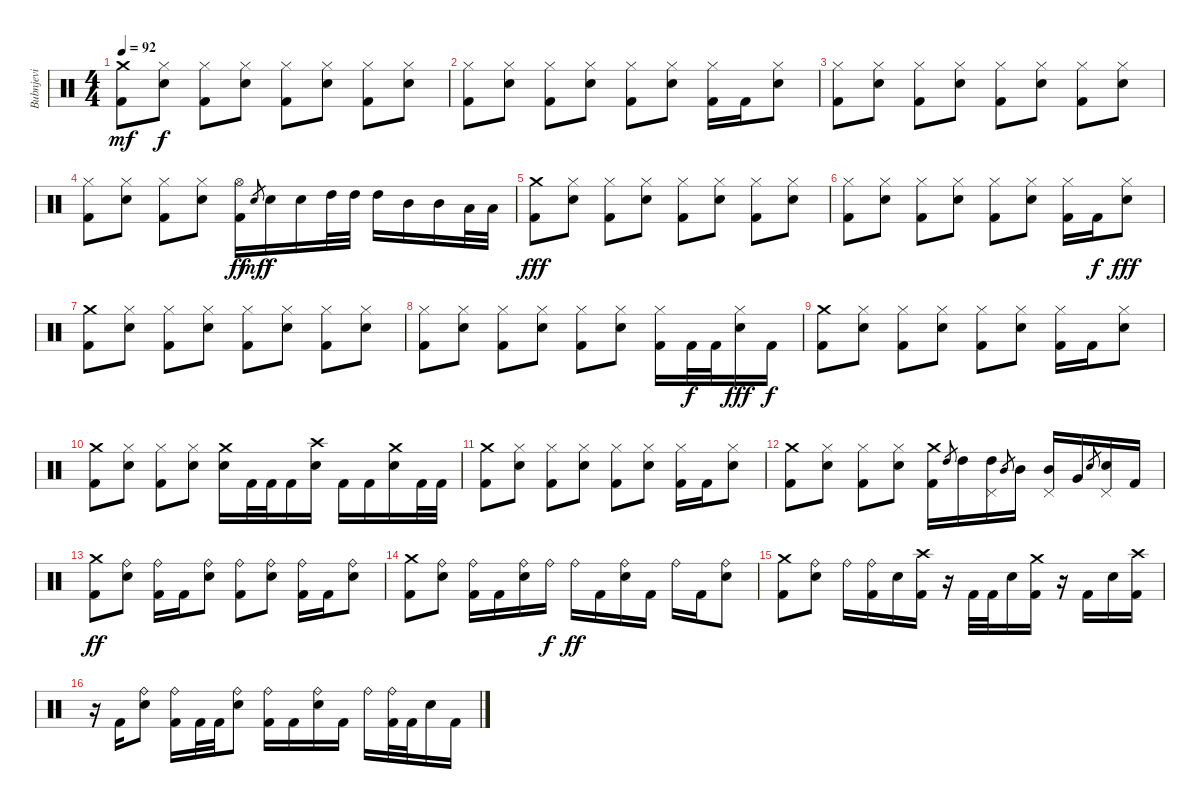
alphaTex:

\track ("Bubnjevi" "Bubnjevi") {instrument percussion}
\staff {score}
\articulation defaults
\ts (4 4)
\tempo 92
\clef neutral
\ks c
("Crash medium (hit)" "Kick (hit) 2").8{dy mf} ("Hi-Hat (closed)" "Electric Snare (hit)").8{dy f} ("Hi-Hat (closed)" "Kick (hit) 2").8 ("Hi-Hat (closed)" "Electric Snare (hit)").8 ("Hi-Hat (closed)" "Kick (hit) 2").8 ("Hi-Hat (closed)" "Electric Snare (hit)").8 ("Hi-Hat (closed)" "Kick (hit) 2").8 ("Hi-Hat (closed)" "Electric Snare (hit)").8 |
("Hi-Hat (closed)" "Kick (hit) 2").8 ("Hi-Hat (closed)" "Electric Snare (hit)").8 ("Hi-Hat (closed)" "Kick (hit) 2").8 ("Hi-Hat (closed)" "Electric Snare (hit)").8 ("Hi-Hat (closed)" "Kick (hit) 2").8 ("Hi-Hat (closed)" "Electric Snare (hit)").8 ("Hi-Hat (closed)" "Kick (hit) 2").16 "Kick (hit) 2".16 ("Hi-Hat (closed)" "Electric Snare (hit)").8 |
("Hi-Hat (closed)" "Kick (hit) 2").8 ("Hi-Hat (closed)" "Electric Snare (hit)").8 ("Hi-Hat (closed)" "Kick (hit) 2").8 ("Hi-Hat (closed)" "Electric Snare (hit)").8 ("Hi-Hat (closed)" "Kick (hit) 2").8 ("Hi-Hat (closed)" "Electric Snare (hit)").8 ("Hi-Hat (closed)" "Kick (hit) 2").8 ("Hi-Hat (closed)" "Electric Snare (hit)").8 |
("Hi-Hat (closed)" "Kick (hit) 2").8 ("Hi-Hat (closed)" "Electric Snare (hit)").8 ("Hi-Hat (closed)" "Kick (hit) 2").8 ("Hi-Hat (closed)" "Electric Snare (hit)").8 ("Hi-Hat (open)" "Kick (hit) 2").16{dy ff} "Electric Snare (hit)".8{gr dy mf} "Electric Snare (hit)".16{dy f} "Electric Snare (hit)".16 "High Tom (hit)".32 "High Tom (hit)".32 "High Tom (hit)".16 "Mid Tom (hit)".16 "Mid Tom (hit)".16 "Low Tom (hit)".32 "Low Tom (hit)".32 |
("Crash medium (hit)" "Kick (hit) 2").8{dy fff} ("Hi-Hat (closed)" "Electric Snare (hit)").8 ("Hi-Hat (closed)" "Kick (hit) 2").8 ("Hi-Hat (closed)" "Electric Snare (hit)").8 ("Hi-Hat (closed)" "Kick (hit) 2").8 ("Hi-Hat (closed)" "Electric Snare (hit)").8 ("Hi-Hat (closed)" "Kick (hit) 2").8 ("Hi-Hat (closed)" "Electric Snare (hit)").8 |
("Hi-Hat (closed)" "Kick (hit) 2").8 ("Hi-Hat (closed)" "Electric Snare (hit)").8 ("Hi-Hat (closed)" "Kick (hit) 2").8 ("Hi-Hat (closed)" "Electric Snare (hit)").8 ("Hi-Hat (closed)" "Kick (hit) 2").8 ("Hi-Hat (closed)" "Electric Snare (hit)").8 ("Hi-Hat (closed)" "Kick (hit) 2").16 "Kick (hit) 2".16{dy f} ("Hi-Hat (closed)" "Electric Snare (hit)").8{dy fff} |
("Crash medium (hit)" "Kick (hit) 2").8 ("Hi-Hat (closed)" "Electric Snare (hit)").8 ("Hi-Hat (closed)" "Kick (hit) 2").8 ("Hi-Hat (closed)" "Electric Snare (hit)").8 ("Hi-Hat (closed)" "Kick (hit) 2").8 ("Hi-Hat (closed)" "Electric Snare (hit)").8 ("Hi-Hat (closed)" "Kick (hit) 2").8 ("Hi-Hat (closed)" "Electric Snare (hit)").8 |
("Hi-Hat (closed)" "Kick (hit) 2").8 ("Hi-Hat (closed)" "Electric Snare (hit)").8 ("Hi-Hat (closed)" "Kick (hit) 2").8 ("Hi-Hat (closed)" "Electric Snare (hit)").8 ("Hi-Hat (closed)" "Kick (hit) 2").8 ("Hi-Hat (closed)" "Electric Snare (hit)").8 ("Hi-Hat (closed)" "Kick (hit) 2").16 "Kick (hit) 2".32{dy f} "Kick (hit) 2".32 ("Hi-Hat (closed)" "Electric Snare (hit)").16{dy fff} "Kick (hit) 2".16{dy f} |
("Crash medium (hit)" "Kick (hit) 2").8 ("Hi-Hat (closed)" "Electric Snare (hit)").8 ("Hi-Hat (closed)" "Kick (hit) 2").8 ("Hi-Hat (closed)" "Electric Snare (hit)").8 ("Hi-Hat (closed)" "Kick (hit) 2").8 ("Hi-Hat (closed)" "Electric Snare (hit)").8 ("Hi-Hat (closed)" "Kick (hit) 2").16 "Kick (hit) 2".16 ("Hi-Hat (closed)" "Electric Snare (hit)").8 |
("Crash medium (hit)" "Kick (hit) 2").8 ("Hi-Hat (closed)" "Electric Snare (hit)").8 ("Hi-Hat (closed)" "Kick (hit) 2").8 ("Hi-Hat (closed)" "Electric Snare (hit)").8 ("Crash medium (hit)" "Electric Snare (hit)").16 "Kick (hit) 2".32 "Kick (hit) 2".32 "Kick (hit) 2".16 ("Crash high (hit)" "Electric Snare (hit)").16 "Kick (hit) 2".16 "Kick (hit) 2".16 ("Crash medium (hit)" "Electric Snare (hit)").16 "Kick (hit) 2".32 "Kick (hit) 2".32 |
("Crash medium (hit)" "Kick (hit) 2").8 ("Hi-Hat (closed)" "Electric Snare (hit)").8 ("Hi-Hat (closed)" "Kick (hit) 2").8 ("Hi-Hat (closed)" "Electric Snare (hit)").8 ("Hi-Hat (closed)" "Kick (hit) 2").8 ("Hi-Hat (closed)" "Electric Snare (hit)").8 ("Hi-Hat (closed)" "Kick (hit) 2").16 "Kick (hit) 2".16 ("Hi-Hat (closed)" "Electric Snare (hit)").8 |
("Crash medium (hit)" "Kick (hit) 2").8 ("Hi-Hat (closed)" "Electric Snare (hit)").8 ("Hi-Hat (closed)" "Kick (hit) 2").8 ("Hi-Hat (closed)" "Electric Snare (hit)").8 ("Crash medium (hit)" "Kick (hit) 2").16 "High Tom (hit)".8{gr} "High Tom (hit)".16 ("Pedal Hi-Hat (hit)" "High Tom (hit)").16 "Mid Tom (hit)".8{gr} "Mid Tom (hit)".16 ("Pedal Hi-Hat (hit)" "Mid Tom (hit)").16 "Very Low Tom (hit)".16 "Electric Snare (hit)".8{gr} ("Pedal Hi-Hat (hit)" "Electric Snare (hit)").16 "Kick (hit) 2".16 |
("Crash medium (hit)" "Kick (hit) 2").8{dy ff} ("Ride (bell)" "Electric Snare (hit)").8 ("Ride (bell)" "Kick (hit) 2").16 "Kick (hit) 2".16 ("Ride (bell)" "Electric Snare (hit)").8 ("Ride (bell)" "Kick (hit) 2").8 ("Ride (bell)" "Electric Snare (hit)").8 ("Ride (bell)" "Kick (hit) 2").16 "Kick (hit) 2".16 ("Ride (bell)" "Electric Snare (hit)").8 |
("Crash medium (hit)" "Kick (hit) 2").8 ("Ride (bell)" "Electric Snare (hit)").8 ("Ride (bell)" "Kick (hit) 2").16 "Kick (hit) 2".16 ("Ride (bell)" "Electric Snare (hit)").16 "Ride (bell)".16{dy f} "Ride (bell)".16{dy ff} "Kick (hit) 2".16 ("Ride (bell)" "Electric Snare (hit)").16 "Kick (hit) 2".16 "Ride (bell)".16 "Kick (hit) 2".16 ("Ride (bell)" "Electric Snare (hit)").8 |
("Crash medium (hit)" "Kick (hit) 2").8 ("Ride (bell)" "Electric Snare (hit)").8 "Ride (bell)".16 ("Ride (bell)" "Kick (hit) 2").16 "Electric Snare (hit)".16 ("Crash high (hit)" "Kick (hit) 2").16 r.16 "Kick (hit) 2".32 "Kick (hit) 2".32 "Electric Snare (hit)".16 ("Crash medium (hit)" "Kick (hit) 2").16 r.16 "Kick (hit) 2".16 "Electric Snare (hit)".16 ("Crash high (hit)" "Kick (hit) 2").16 |
r.16 "Kick (hit) 2".16 ("Ride (bell)" "Electric Snare (hit)").8 ("Ride (bell)" "Kick (hit) 2").16 "Kick (hit) 2".32 "Kick (hit) 2".32 ("Ride (bell)" "Electric Snare (hit)").8 ("Ride (bell)" "Kick (hit) 2").16 "Kick (hit) 2".16 ("Ride (bell)" "Electric Snare (hit)").16 "Kick (hit) 2".16 "Ride (bell)".16 ("Ride (bell)" "Kick (hit) 2").32 "Kick (hit) 2".32 "Electric Snare (hit)".16 "Kick (hit) 2".16
